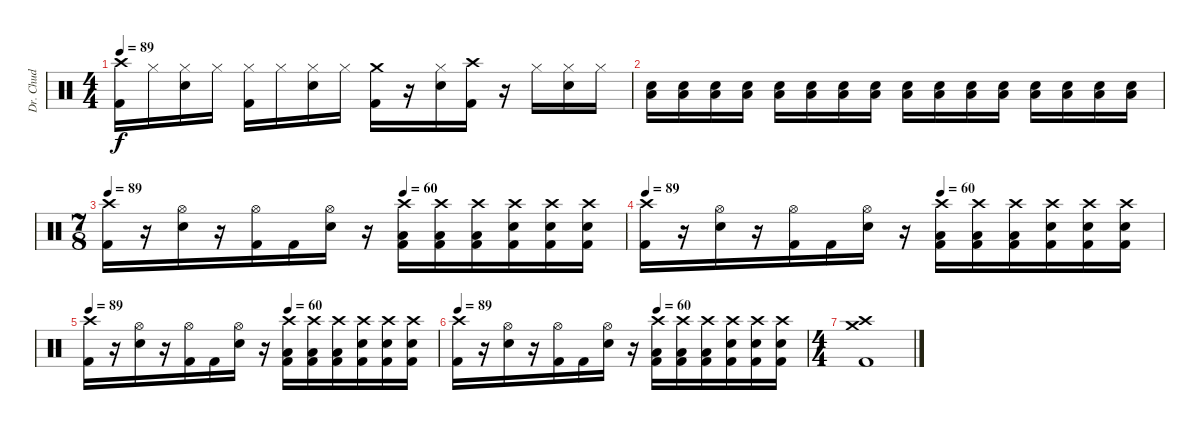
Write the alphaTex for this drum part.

\track ("Dr. Chud" "Dr. Chud") {instrument percussion}
\staff {score}
\articulation defaults
\ts (4 4)
\tempo 89
\clef neutral
\ks c
("Crash high (hit)" "Kick (hit) 2").16{dy f} "Hi-Hat (closed)".16 ("Hi-Hat (closed)" "Snare (hit) 2").16 "Hi-Hat (closed)".16 ("Hi-Hat (closed)" "Kick (hit) 2").16 "Hi-Hat (closed)".16 ("Hi-Hat (closed)" "Snare (hit) 2").16 "Hi-Hat (closed)".16 ("Crash medium (hit)" "Kick (hit) 2").16 r.16 ("Hi-Hat (closed)" "Snare (hit) 2").16 ("Crash high (hit)" "Kick (hit) 2").16 r.16 "Hi-Hat (closed)".16 ("Hi-Hat (closed)" "Snare (hit) 2").16 "Hi-Hat (closed)".16 |
("Snare (hit) 2" "Low Floor Tom (hit)").16 ("Snare (hit) 2" "Low Floor Tom (hit)").16 ("Snare (hit) 2" "Low Floor Tom (hit)").16 ("Snare (hit) 2" "Low Floor Tom (hit)").16 ("Snare (hit) 2" "Low Floor Tom (hit)").16 ("Snare (hit) 2" "Low Floor Tom (hit)").16 ("Snare (hit) 2" "Low Floor Tom (hit)").16 ("Snare (hit) 2" "Low Floor Tom (hit)").16 ("Snare (hit) 2" "Low Floor Tom (hit)").16 ("Snare (hit) 2" "Low Floor Tom (hit)").16 ("Snare (hit) 2" "Low Floor Tom (hit)").16 ("Snare (hit) 2" "Low Floor Tom (hit)").16 ("Snare (hit) 2" "Low Floor Tom (hit)").16 ("Snare (hit) 2" "Low Floor Tom (hit)").16 ("Snare (hit) 2" "Low Floor Tom (hit)").16 ("Snare (hit) 2" "Low Floor Tom (hit)").16 |
\ts (7 8)
\tempo 89
\tempo (60 0.5714285714285714)
("Crash high (hit)" "Kick (hit) 2").16 r.16 ("Hi-Hat (open)" "Snare (hit) 2").16 r.16 ("Hi-Hat (open)" "Kick (hit) 2").16 "Kick (hit) 2".16 ("Hi-Hat (open)" "Snare (hit) 2").16 r.16 ("Crash high (hit)" "Low Tom (hit)" "Kick (hit) 2").16 ("Crash high (hit)" "Low Tom (hit)" "Kick (hit) 2").16 ("Crash high (hit)" "Low Tom (hit)" "Kick (hit) 2").16 ("Crash high (hit)" "Snare (hit) 2" "Kick (hit) 2").16 ("Crash high (hit)" "Snare (hit) 2" "Kick (hit) 2").16 ("Crash high (hit)" "Snare (hit) 2" "Kick (hit) 2").16 |
\tempo 89
\tempo (60 0.5714285714285714)
("Crash high (hit)" "Kick (hit) 2").16 r.16 ("Hi-Hat (open)" "Snare (hit) 2").16 r.16 ("Hi-Hat (open)" "Kick (hit) 2").16 "Kick (hit) 2".16 ("Hi-Hat (open)" "Snare (hit) 2").16 r.16 ("Crash high (hit)" "Low Tom (hit)" "Kick (hit) 2").16 ("Crash high (hit)" "Low Tom (hit)" "Kick (hit) 2").16 ("Crash high (hit)" "Low Tom (hit)" "Kick (hit) 2").16 ("Crash high (hit)" "Snare (hit) 2" "Kick (hit) 2").16 ("Crash high (hit)" "Snare (hit) 2" "Kick (hit) 2").16 ("Crash high (hit)" "Snare (hit) 2" "Kick (hit) 2").16 |
\tempo 89
\tempo (60 0.5714285714285714)
("Crash high (hit)" "Kick (hit) 2").16 r.16 ("Hi-Hat (open)" "Snare (hit) 2").16 r.16 ("Hi-Hat (open)" "Kick (hit) 2").16 "Kick (hit) 2".16 ("Hi-Hat (open)" "Snare (hit) 2").16 r.16 ("Crash high (hit)" "Low Tom (hit)" "Kick (hit) 2").16 ("Crash high (hit)" "Low Tom (hit)" "Kick (hit) 2").16 ("Crash high (hit)" "Low Tom (hit)" "Kick (hit) 2").16 ("Crash high (hit)" "Snare (hit) 2" "Kick (hit) 2").16 ("Crash high (hit)" "Snare (hit) 2" "Kick (hit) 2").16 ("Crash high (hit)" "Snare (hit) 2" "Kick (hit) 2").16 |
\tempo 89
\tempo (60 0.5714285714285714)
("Crash high (hit)" "Kick (hit) 2").16 r.16 ("Hi-Hat (open)" "Snare (hit) 2").16 r.16 ("Hi-Hat (open)" "Kick (hit) 2").16 "Kick (hit) 2".16 ("Hi-Hat (open)" "Snare (hit) 2").16 r.16 ("Crash high (hit)" "Low Tom (hit)" "Kick (hit) 2").16 ("Crash high (hit)" "Low Tom (hit)" "Kick (hit) 2").16 ("Crash high (hit)" "Low Tom (hit)" "Kick (hit) 2").16 ("Crash high (hit)" "Snare (hit) 2" "Kick (hit) 2").16 ("Crash high (hit)" "Snare (hit) 2" "Kick (hit) 2").16 ("Crash high (hit)" "Snare (hit) 2" "Kick (hit) 2").16 |
\ts (4 4)
("Crash high (hit)" "Crash medium (hit)" "Kick (hit) 2").1
